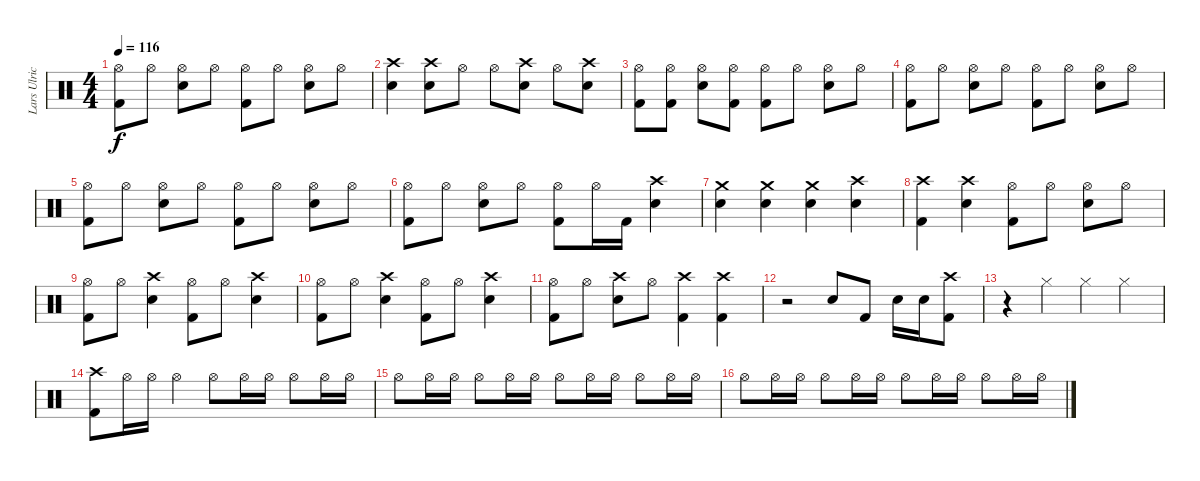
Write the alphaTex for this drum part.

\track ("Lars Ulrich" "Lars Ulric") {instrument percussion}
\staff {score}
\articulation defaults
\ts (4 4)
\tempo 116
\clef neutral
\ks c
("Hi-Hat (open)" "Kick (hit) 2").8{dy f} "Hi-Hat (open)".8 ("Hi-Hat (open)" "Electric Snare (hit)").8 "Hi-Hat (open)".8 ("Hi-Hat (open)" "Kick (hit) 2").8 "Hi-Hat (open)".8 ("Hi-Hat (open)" "Electric Snare (hit)").8 "Hi-Hat (open)".8 |
("Crash high (hit)" "Electric Snare (hit)").4 ("Crash high (hit)" "Electric Snare (hit)").8 "Hi-Hat (open)".8 "Hi-Hat (open)".8 ("Crash high (hit)" "Electric Snare (hit)").8 "Hi-Hat (open)".8 ("Crash high (hit)" "Electric Snare (hit)").8 |
("Hi-Hat (open)" "Kick (hit) 2").8 ("Hi-Hat (open)" "Kick (hit) 2").8 ("Hi-Hat (open)" "Electric Snare (hit)").8 ("Hi-Hat (open)" "Kick (hit) 2").8 ("Hi-Hat (open)" "Kick (hit) 2").8 "Hi-Hat (open)".8 ("Hi-Hat (open)" "Electric Snare (hit)").8 "Hi-Hat (open)".8 |
("Hi-Hat (open)" "Kick (hit) 2").8 "Hi-Hat (open)".8 ("Hi-Hat (open)" "Electric Snare (hit)").8 "Hi-Hat (open)".8 ("Hi-Hat (open)" "Kick (hit) 2").8 "Hi-Hat (open)".8 ("Hi-Hat (open)" "Electric Snare (hit)").8 "Hi-Hat (open)".8 |
("Hi-Hat (open)" "Kick (hit) 2").8 "Hi-Hat (open)".8 ("Hi-Hat (open)" "Electric Snare (hit)").8 "Hi-Hat (open)".8 ("Hi-Hat (open)" "Kick (hit) 2").8 "Hi-Hat (open)".8 ("Hi-Hat (open)" "Electric Snare (hit)").8 "Hi-Hat (open)".8 |
("Hi-Hat (open)" "Kick (hit) 2").8 "Hi-Hat (open)".8 ("Hi-Hat (open)" "Electric Snare (hit)").8 "Hi-Hat (open)".8 ("Hi-Hat (open)" "Kick (hit) 2").8 "Hi-Hat (open)".16 "Kick (hit) 2".16 ("Crash high (hit)" "Electric Snare (hit)").4 |
("Crash medium (hit)" "Electric Snare (hit)").4 ("Crash medium (hit)" "Electric Snare (hit)").4 ("Crash medium (hit)" "Electric Snare (hit)").4 ("Crash high (hit)" "Electric Snare (hit)").4 |
("Crash high (hit)" "Kick (hit) 2").4 ("Crash high (hit)" "Electric Snare (hit)").4 ("Hi-Hat (open)" "Kick (hit) 2").8 "Hi-Hat (open)".8 ("Hi-Hat (open)" "Electric Snare (hit)").8 "Hi-Hat (open)".8 |
("Hi-Hat (open)" "Kick (hit) 2").8 "Hi-Hat (open)".8 ("Crash high (hit)" "Electric Snare (hit)").4 ("Hi-Hat (open)" "Kick (hit) 2").8 "Hi-Hat (open)".8 ("Crash high (hit)" "Electric Snare (hit)").4 |
("Hi-Hat (open)" "Kick (hit) 2").8 "Hi-Hat (open)".8 ("Crash high (hit)" "Electric Snare (hit)").4 ("Hi-Hat (open)" "Kick (hit) 2").8 "Hi-Hat (open)".8 ("Crash high (hit)" "Electric Snare (hit)").4 |
("Hi-Hat (open)" "Kick (hit) 2").8 "Hi-Hat (open)".8 ("Crash high (hit)" "Electric Snare (hit)").8 "Hi-Hat (open)".8 ("Crash high (hit)" "Kick (hit) 2").4 ("Crash high (hit)" "Kick (hit) 2").4 |
r.2 "Electric Snare (hit)".8 "Kick (hit) 2".8 "Electric Snare (hit)".16 "Electric Snare (hit)".16 ("Crash high (hit)" "Kick (hit) 2").8 |
r.4 "Hi-Hat (closed)".4 "Hi-Hat (closed)".4 "Hi-Hat (closed)".4 |
("Crash high (hit)" "Kick (hit) 2").8 "Hi-Hat (open)".16 "Hi-Hat (open)".16 "Hi-Hat (open)".4 "Hi-Hat (open)".8 "Hi-Hat (open)".16 "Hi-Hat (open)".16 "Hi-Hat (open)".8 "Hi-Hat (open)".16 "Hi-Hat (open)".16 |
"Hi-Hat (open)".8 "Hi-Hat (open)".16 "Hi-Hat (open)".16 "Hi-Hat (open)".8 "Hi-Hat (open)".16 "Hi-Hat (open)".16 "Hi-Hat (open)".8 "Hi-Hat (open)".16 "Hi-Hat (open)".16 "Hi-Hat (open)".8 "Hi-Hat (open)".16 "Hi-Hat (open)".16 |
"Hi-Hat (open)".8 "Hi-Hat (open)".16 "Hi-Hat (open)".16 "Hi-Hat (open)".8 "Hi-Hat (open)".16 "Hi-Hat (open)".16 "Hi-Hat (open)".8 "Hi-Hat (open)".16 "Hi-Hat (open)".16 "Hi-Hat (open)".8 "Hi-Hat (open)".16 "Hi-Hat (open)".16
